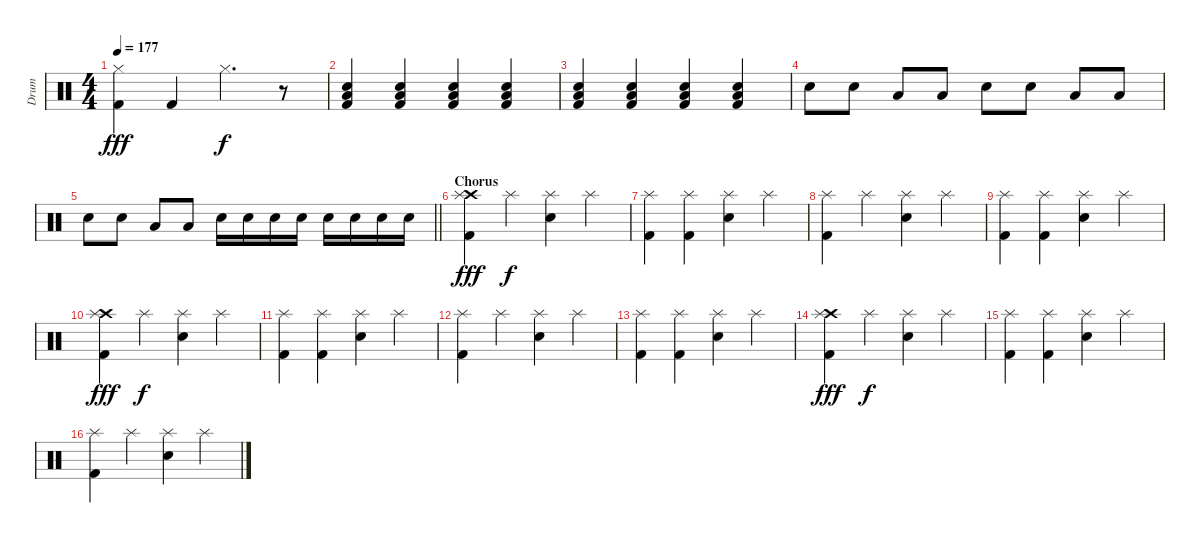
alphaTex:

\track ("Drum" "Drum") {instrument percussion}
\staff {score}
\articulation defaults
\ts (4 4)
\tempo 177
\clef neutral
\ks c
("Hi-Hat (closed)" "Kick (hit) 2").4{dy fff} "Kick (hit) 2".4 "Hi-Hat (closed)".4{d dy f} r.8 |
("Low Floor Tom (hit)" "Electric Snare (hit)" "Kick (hit) 2").4 ("Low Floor Tom (hit)" "Electric Snare (hit)" "Kick (hit) 2").4 ("Low Floor Tom (hit)" "Electric Snare (hit)" "Kick (hit) 2").4 ("Low Floor Tom (hit)" "Electric Snare (hit)" "Kick (hit) 2").4 |
("Low Floor Tom (hit)" "Electric Snare (hit)" "Kick (hit) 2").4 ("Low Floor Tom (hit)" "Electric Snare (hit)" "Kick (hit) 2").4 ("Low Floor Tom (hit)" "Electric Snare (hit)" "Kick (hit) 2").4 ("Low Floor Tom (hit)" "Electric Snare (hit)" "Kick (hit) 2").4 |
"Snare (hit) 2".8 "Snare (hit) 2".8 "Low Floor Tom (hit)".8 "Low Floor Tom (hit)".8 "Snare (hit) 2".8 "Snare (hit) 2".8 "Low Floor Tom (hit)".8 "Low Floor Tom (hit)".8 |
\barLineRight lightlight "Snare (hit) 2".8 "Snare (hit) 2".8 "Low Floor Tom (hit)".8 "Low Floor Tom (hit)".8 "Electric Snare (hit)".16 "Electric Snare (hit)".16 "Electric Snare (hit)".16 "Electric Snare (hit)".16 "Electric Snare (hit)".16 "Electric Snare (hit)".16 "Electric Snare (hit)".16 "Electric Snare (hit)".16
|
\section ("" "Chorus")
("Crash high (hit)" "Splash (hit)" "Kick (hit) 2").4{dy fff} "Splash (hit)".4{dy f} ("Snare (hit) 2" "Splash (hit)").4 "Splash (hit)".4 |
("Splash (hit)" "Kick (hit) 2").4 ("Splash (hit)" "Kick (hit) 2").4 ("Snare (hit) 2" "Splash (hit)").4 "Splash (hit)".4 |
("Splash (hit)" "Kick (hit) 2").4 "Splash (hit)".4 ("Snare (hit) 2" "Splash (hit)").4 "Splash (hit)".4 |
("Splash (hit)" "Kick (hit) 2").4 ("Splash (hit)" "Kick (hit) 2").4 ("Snare (hit) 2" "Splash (hit)").4 "Splash (hit)".4 |
("Crash high (hit)" "Splash (hit)" "Kick (hit) 2").4{dy fff} "Splash (hit)".4{dy f} ("Snare (hit) 2" "Splash (hit)").4 "Splash (hit)".4 |
("Splash (hit)" "Kick (hit) 2").4 ("Splash (hit)" "Kick (hit) 2").4 ("Snare (hit) 2" "Splash (hit)").4 "Splash (hit)".4 |
("Splash (hit)" "Kick (hit) 2").4 "Splash (hit)".4 ("Snare (hit) 2" "Splash (hit)").4 "Splash (hit)".4 |
("Splash (hit)" "Kick (hit) 2").4 ("Splash (hit)" "Kick (hit) 2").4 ("Snare (hit) 2" "Splash (hit)").4 "Splash (hit)".4 |
("Crash high (hit)" "Splash (hit)" "Kick (hit) 2").4{dy fff} "Splash (hit)".4{dy f} ("Snare (hit) 2" "Splash (hit)").4 "Splash (hit)".4 |
("Splash (hit)" "Kick (hit) 2").4 ("Splash (hit)" "Kick (hit) 2").4 ("Snare (hit) 2" "Splash (hit)").4 "Splash (hit)".4 |
("Splash (hit)" "Kick (hit) 2").4 "Splash (hit)".4 ("Snare (hit) 2" "Splash (hit)").4 "Splash (hit)".4
